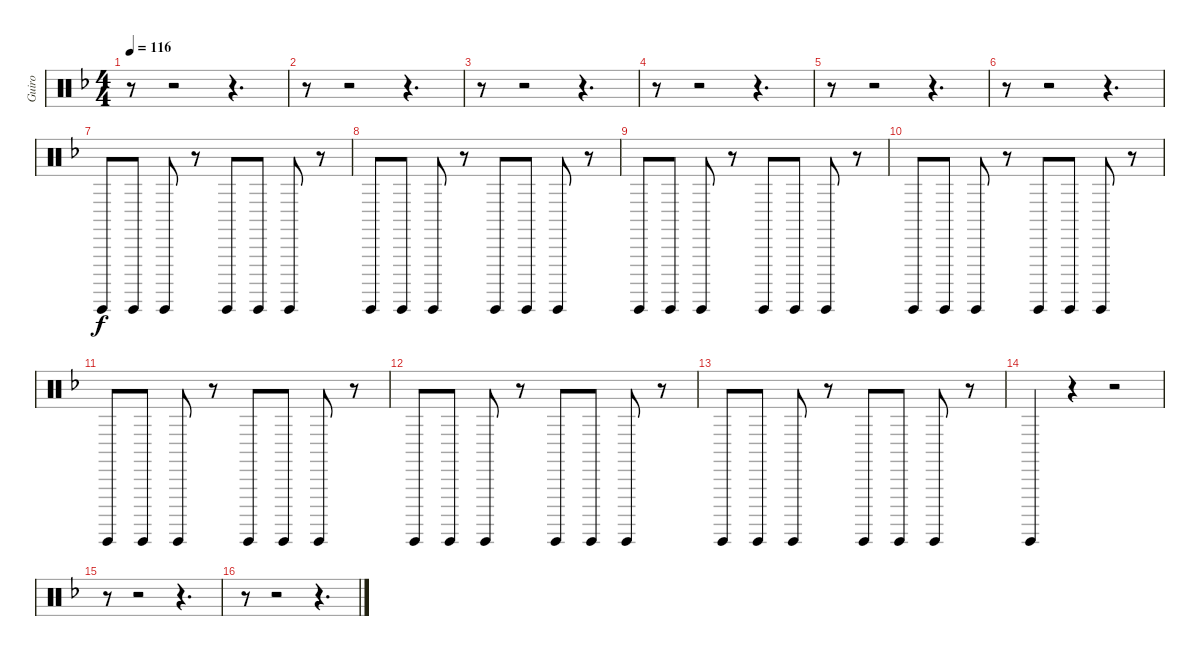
\track ("Guiro" "Guiro") {instrument percussion}
\staff {score}
\articulation defaults
\ts (4 4)
\tempo 116
\clef neutral
\ks dminor
r.8{dy f} r.2 r.4{d} |
r.8 r.2 r.4{d} |
r.8 r.2 r.4{d} |
r.8 r.2 r.4{d} |
r.8 r.2 r.4{d} |
r.8 r.2 r.4{d} |
"Guiro (hit)".8 "Guiro (hit)".8 "Guiro (hit)".8 r.8 "Guiro (hit)".8 "Guiro (hit)".8 "Guiro (hit)".8 r.8 |
"Guiro (hit)".8 "Guiro (hit)".8 "Guiro (hit)".8 r.8 "Guiro (hit)".8 "Guiro (hit)".8 "Guiro (hit)".8 r.8 |
"Guiro (hit)".8 "Guiro (hit)".8 "Guiro (hit)".8 r.8 "Guiro (hit)".8 "Guiro (hit)".8 "Guiro (hit)".8 r.8 |
"Guiro (hit)".8 "Guiro (hit)".8 "Guiro (hit)".8 r.8 "Guiro (hit)".8 "Guiro (hit)".8 "Guiro (hit)".8 r.8 |
"Guiro (hit)".8 "Guiro (hit)".8 "Guiro (hit)".8 r.8 "Guiro (hit)".8 "Guiro (hit)".8 "Guiro (hit)".8 r.8 |
"Guiro (hit)".8 "Guiro (hit)".8 "Guiro (hit)".8 r.8 "Guiro (hit)".8 "Guiro (hit)".8 "Guiro (hit)".8 r.8 |
"Guiro (hit)".8 "Guiro (hit)".8 "Guiro (hit)".8 r.8 "Guiro (hit)".8 "Guiro (hit)".8 "Guiro (hit)".8 r.8 |
"Guiro (hit)".4 r.4 r.2 |
r.8 r.2 r.4{d} |
r.8 r.2 r.4{d}
